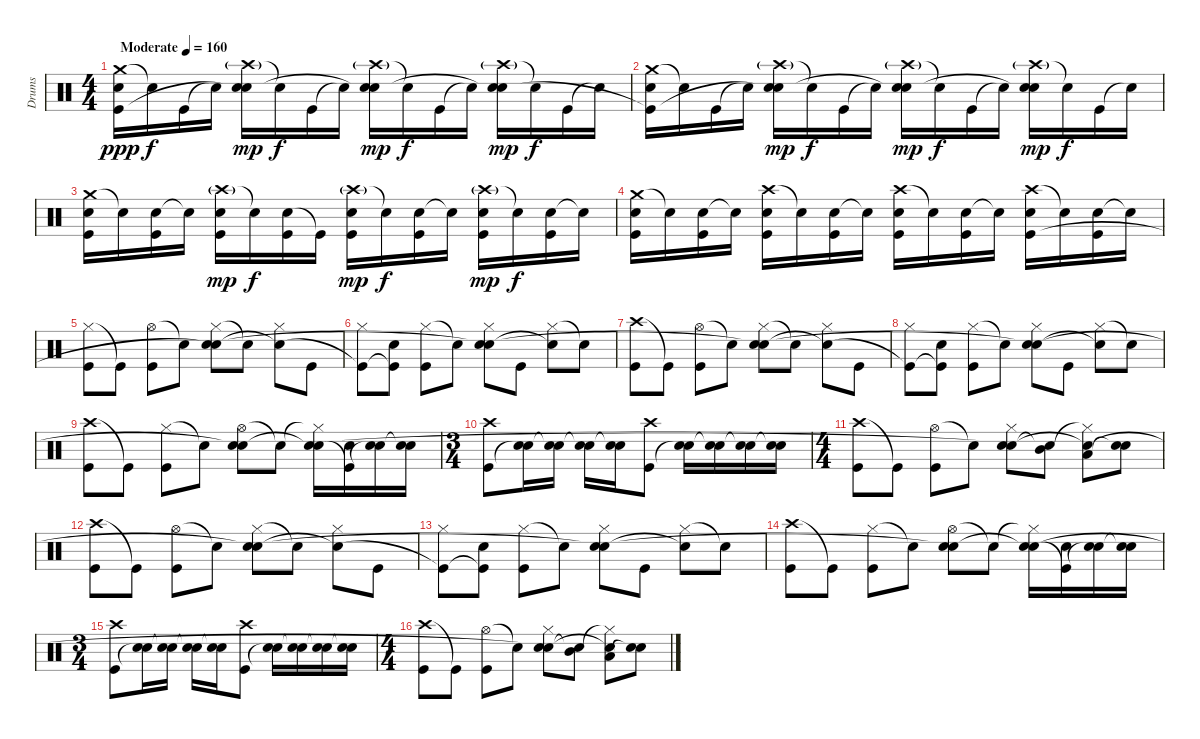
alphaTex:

\track ("Drums" "Drums") {instrument percussion}
\staff {score}
\articulation defaults
\ts (4 4)
\tempo (160 "Moderate")
\clef neutral
\ks c
("Crash medium (hit)" "Electric Snare (hit)" "Kick (hit)").16{dy ppp} "Snare (hit)"{t}.16{dy f} "Kick (hit)".16 "Snare (hit)"{t}.16 ("Crash high (hit)"{g} "Electric Snare (hit)" "Snare (hit)"{t}).16{dy mp} "Snare (hit)"{t}.16{dy f} "Kick (hit)".16 "Snare (hit)"{t}.16 ("Crash high (hit)"{g} "Electric Snare (hit)" "Snare (hit)"{t}).16{dy mp} "Snare (hit)"{t}.16{dy f} "Kick (hit)".16 "Snare (hit)"{t}.16 ("Crash high (hit)"{g} "Electric Snare (hit)" "Snare (hit)"{t}).16{dy mp} "Snare (hit)"{t}.16{dy f} "Kick (hit)".16 "Snare (hit)"{t}.16 |
("Crash medium (hit)" "Electric Snare (hit)" "Kick (hit)"{t}).16 "Snare (hit)"{t}.16 "Kick (hit)".16 "Snare (hit)"{t}.16 ("Crash high (hit)"{g} "Electric Snare (hit)" "Snare (hit)"{t}).16{dy mp} "Snare (hit)"{t}.16{dy f} "Kick (hit)".16 "Snare (hit)"{t}.16 ("Crash high (hit)"{g} "Electric Snare (hit)" "Snare (hit)"{t}).16{dy mp} "Snare (hit)"{t}.16{dy f} "Kick (hit)".16 "Snare (hit)"{t}.16 ("Crash high (hit)"{g} "Electric Snare (hit)" "Snare (hit)"{t}).16{dy mp} "Snare (hit)"{t}.16{dy f} "Kick (hit)".16 "Snare (hit)"{t}.16 |
("Crash medium (hit)" "Electric Snare (hit)" "Kick (hit)").16 "Snare (hit)"{t}.16 ("Electric Snare (hit)" "Kick (hit)").16 "Snare (hit)"{t}.16 ("Crash high (hit)"{g} "Electric Snare (hit)" "Kick (hit)").16{dy mp} "Snare (hit)"{t}.16{dy f} ("Electric Snare (hit)" "Kick (hit)").16 "Kick (hit)"{t}.16 ("Crash high (hit)"{g} "Electric Snare (hit)" "Kick (hit)").16{dy mp} "Snare (hit)"{t}.16{dy f} ("Electric Snare (hit)" "Kick (hit)").16 "Snare (hit)"{t}.16 ("Crash high (hit)"{g} "Electric Snare (hit)" "Kick (hit)").16{dy mp} "Snare (hit)"{t}.16{dy f} ("Electric Snare (hit)" "Kick (hit)").16 "Snare (hit)"{t}.16 |
("Crash medium (hit)" "Electric Snare (hit)" "Kick (hit)").16 "Snare (hit)"{t}.16 ("Electric Snare (hit)" "Kick (hit)").16 "Snare (hit)"{t}.16 ("Crash high (hit)" "Electric Snare (hit)" "Kick (hit)").16 "Snare (hit)"{t}.16 ("Electric Snare (hit)" "Kick (hit)").16 "Snare (hit)"{t}.16 ("Crash high (hit)" "Electric Snare (hit)" "Kick (hit)").16 "Snare (hit)"{t}.16 ("Electric Snare (hit)" "Kick (hit)").16 "Snare (hit)"{t}.16 ("Crash high (hit)" "Electric Snare (hit)" "Kick (hit)").16 "Snare (hit)"{t}.16 ("Electric Snare (hit)" "Kick (hit)").16 "Snare (hit)"{t}.16 |
("Hi-Hat (closed)" "Kick (hit)").8 "Kick (hit)"{t}.8 ("Hi-Hat (open)" "Kick (hit)").8 "Snare (hit)"{t}.8 ("Hi-Hat (closed)" "Electric Snare (hit)" "Snare (hit)"{t}).8 "Snare (hit)"{t}.8 ("Hi-Hat (closed)" "Snare (hit)"{t}).8 "Kick (hit)".8 |
("Hi-Hat (closed)" "Kick (hit)"{t}).8 ("Electric Snare (hit)" "Kick (hit)"{t}).8 ("Hi-Hat (closed)" "Kick (hit)").8 "Snare (hit)"{t}.8 ("Hi-Hat (closed)" "Electric Snare (hit)" "Snare (hit)"{t}).8 "Kick (hit)".8 ("Hi-Hat (closed)" "Snare (hit)"{t}).8 "Snare (hit)"{t}.8 |
("Crash high (hit)" "Kick (hit)").8 "Kick (hit)"{t}.8 ("Hi-Hat (open)" "Kick (hit)").8 "Snare (hit)"{t}.8 ("Hi-Hat (closed)" "Electric Snare (hit)" "Snare (hit)"{t}).8 "Snare (hit)"{t}.8 ("Hi-Hat (closed)" "Snare (hit)"{t}).8 "Kick (hit)".8 |
("Hi-Hat (closed)" "Kick (hit)"{t}).8 ("Electric Snare (hit)" "Kick (hit)"{t}).8 ("Hi-Hat (closed)" "Kick (hit)").8 "Snare (hit)"{t}.8 ("Hi-Hat (closed)" "Electric Snare (hit)" "Snare (hit)"{t}).8 "Kick (hit)".8 ("Hi-Hat (closed)" "Snare (hit)"{t}).8 "Snare (hit)"{t}.8 |
("Crash high (hit)" "Kick (hit)").8 "Kick (hit)"{t}.8 ("Hi-Hat (closed)" "Kick (hit)").8 "Snare (hit)"{t}.8 ("Hi-Hat (open)" "Electric Snare (hit)" "Snare (hit)"{t}).8 "Snare (hit)"{t}.8 ("Hi-Hat (closed)"{t} "Electric Snare (hit)" "Snare (hit)"{t}).16 ("Electric Snare (hit)" "Kick (hit)"{t}).16 ("Electric Snare (hit)" "Snare (hit)"{t}).16 ("Electric Snare (hit)" "Snare (hit)"{t}).16 |
\ts (3 4)
("Crash high (hit)" "Kick (hit)").8 ("Snare (hit) 2" "Snare (hit)"{t}).16 ("Snare (hit) 2" "Snare (hit)"{t}).16 ("Snare (hit) 2" "Snare (hit)"{t}).16 ("Snare (hit) 2" "Snare (hit)"{t}).16 ("Crash high (hit)" "Kick (hit)").8 ("Electric Snare (hit)" "Snare (hit)"{t}).16 ("Electric Snare (hit)" "Snare (hit)"{t}).16 ("Electric Snare (hit)" "Snare (hit)"{t}).16 ("Electric Snare (hit)" "Snare (hit)"{t}).16 |
\ts (4 4)
("Crash high (hit)" "Kick (hit)").8 "Kick (hit)"{t}.8 ("Hi-Hat (open)" "Kick (hit)").8 "Snare (hit)"{t}.8 ("Hi-Hat (closed)" "Electric Snare (hit)" "Snare (hit)"{t}).8 ("Mid Tom (hit)" "Snare (hit)"{t}).8 ("Hi-Hat (closed)"{t} "Low Tom (hit)" "Snare (hit)"{t}).8 ("Snare (hit) 2" "Snare (hit)"{t}).8 |
("Crash high (hit)" "Kick (hit)").8 "Kick (hit)"{t}.8 ("Hi-Hat (open)" "Kick (hit)").8 "Snare (hit)"{t}.8 ("Hi-Hat (closed)" "Electric Snare (hit)" "Snare (hit)"{t}).8 "Snare (hit)"{t}.8 ("Hi-Hat (closed)" "Snare (hit)"{t}).8 "Kick (hit)".8 |
("Hi-Hat (closed)" "Kick (hit)"{t}).8 ("Electric Snare (hit)" "Kick (hit)"{t}).8 ("Hi-Hat (closed)" "Kick (hit)").8 "Snare (hit)"{t}.8 ("Hi-Hat (closed)" "Electric Snare (hit)" "Snare (hit)"{t}).8 "Kick (hit)".8 ("Hi-Hat (closed)" "Snare (hit)"{t}).8 "Snare (hit)"{t}.8 |
("Crash high (hit)" "Kick (hit)").8 "Kick (hit)"{t}.8 ("Hi-Hat (closed)" "Kick (hit)").8 "Snare (hit)"{t}.8 ("Hi-Hat (open)" "Electric Snare (hit)" "Snare (hit)"{t}).8 "Snare (hit)"{t}.8 ("Hi-Hat (closed)"{t} "Electric Snare (hit)" "Snare (hit)"{t}).16 ("Electric Snare (hit)" "Kick (hit)"{t}).16 ("Electric Snare (hit)" "Snare (hit)"{t}).16 ("Electric Snare (hit)" "Snare (hit)"{t}).16 |
\ts (3 4)
("Crash high (hit)" "Kick (hit)").8 ("Snare (hit) 2" "Snare (hit)"{t}).16 ("Snare (hit) 2" "Snare (hit)"{t}).16 ("Snare (hit) 2" "Snare (hit)"{t}).16 ("Snare (hit) 2" "Snare (hit)"{t}).16 ("Crash high (hit)" "Kick (hit)").8 ("Electric Snare (hit)" "Snare (hit)"{t}).16 ("Electric Snare (hit)" "Snare (hit)"{t}).16 ("Electric Snare (hit)" "Snare (hit)"{t}).16 ("Electric Snare (hit)" "Snare (hit)"{t}).16 |
\ts (4 4)
("Crash high (hit)" "Kick (hit)").8 "Kick (hit)"{t}.8 ("Hi-Hat (open)" "Kick (hit)").8 "Snare (hit)"{t}.8 ("Hi-Hat (closed)" "Electric Snare (hit)" "Snare (hit)"{t}).8 ("Mid Tom (hit)" "Snare (hit)"{t}).8 ("Hi-Hat (closed)"{t} "Low Tom (hit)" "Snare (hit)"{t}).8 ("Snare (hit) 2" "Snare (hit)"{t}).8
